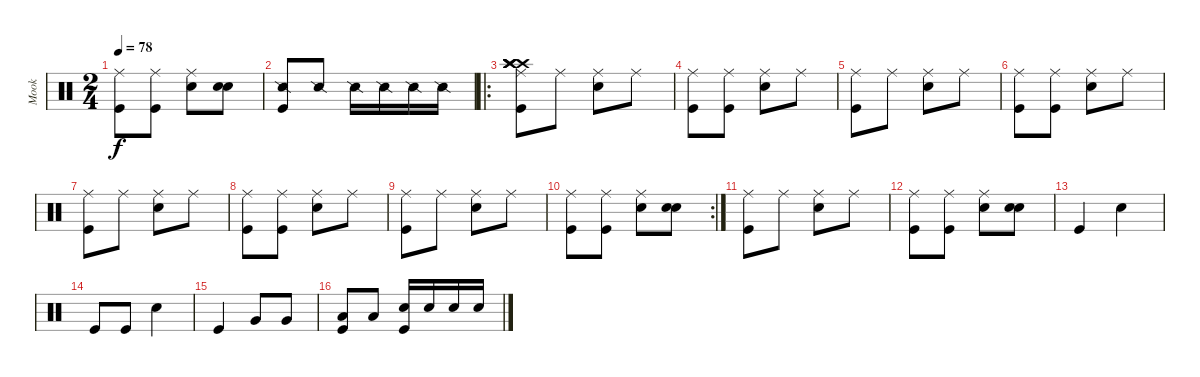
\track ("Mook" "Mook") {instrument percussion}
\staff {score}
\articulation defaults
\ts (2 4)
\tempo 78
\clef neutral
\ks c
("Ride (middle)" "Kick (hit)").8{dy f} ("Ride (middle)" "Kick (hit)").8 ("Ride (middle)" "Metronome (bell)").8 ("Snare (hit)" "Metronome (bell)").8 |
("Kick (hit)" "Snare (side stick) 2").8 "Snare (side stick) 2".8 "Snare (side stick) 2".16 "Snare (side stick) 2".16 "Snare (side stick) 2".16 "Snare (side stick) 2".16 |
\ro
("Ride (middle)" "Kick (hit)" "Crash high (hit)" "Crash high (hit)" "Crash high (hit)" "Crash high (hit)").8 "Ride (middle)".8 ("Ride (middle)" "Metronome (bell)").8 "Ride (middle)".8 |
("Ride (middle)" "Kick (hit)").8 ("Ride (middle)" "Kick (hit)").8 ("Ride (middle)" "Metronome (bell)").8 "Ride (middle)".8 |
("Ride (middle)" "Kick (hit)").8 "Ride (middle)".8 ("Ride (middle)" "Metronome (bell)").8 "Ride (middle)".8 |
("Ride (middle)" "Kick (hit)").8 ("Ride (middle)" "Kick (hit)").8 ("Ride (middle)" "Metronome (bell)").8 "Ride (middle)".8 |
("Ride (middle)" "Kick (hit)").8 "Ride (middle)".8 ("Ride (middle)" "Metronome (bell)").8 "Ride (middle)".8 |
("Ride (middle)" "Kick (hit)").8 ("Ride (middle)" "Kick (hit)").8 ("Ride (middle)" "Metronome (bell)").8 "Ride (middle)".8 |
("Ride (middle)" "Kick (hit)").8 "Ride (middle)".8 ("Ride (middle)" "Metronome (bell)").8 "Ride (middle)".8 |
\rc 2
("Ride (middle)" "Kick (hit)").8 ("Ride (middle)" "Kick (hit)").8 ("Ride (middle)" "Metronome (bell)").8 ("Snare (hit)" "Metronome (bell)").8 |
("Ride (middle)" "Kick (hit)").8 "Ride (middle)".8 ("Ride (middle)" "Metronome (bell)").8 "Ride (middle)".8 |
("Ride (middle)" "Kick (hit)").8 ("Ride (middle)" "Kick (hit)").8 ("Ride (middle)" "Metronome (bell)").8 ("Snare (hit)" "Metronome (bell)").8 |
"Kick (hit)".4 "Snare (hit) 2".4 |
"Kick (hit)".8 "Kick (hit)".8 "Snare (hit) 2".4 |
"Kick (hit)".4 "Very Low Tom (hit)".8 "Very Low Tom (hit)".8 |
("Low Floor Tom (hit)" "Kick (hit)").8 "Low Floor Tom (hit)".8 ("Metronome (bell)" "Kick (hit)").16 "Metronome (bell)".16 "Metronome (bell)".16 "Metronome (bell)".16
